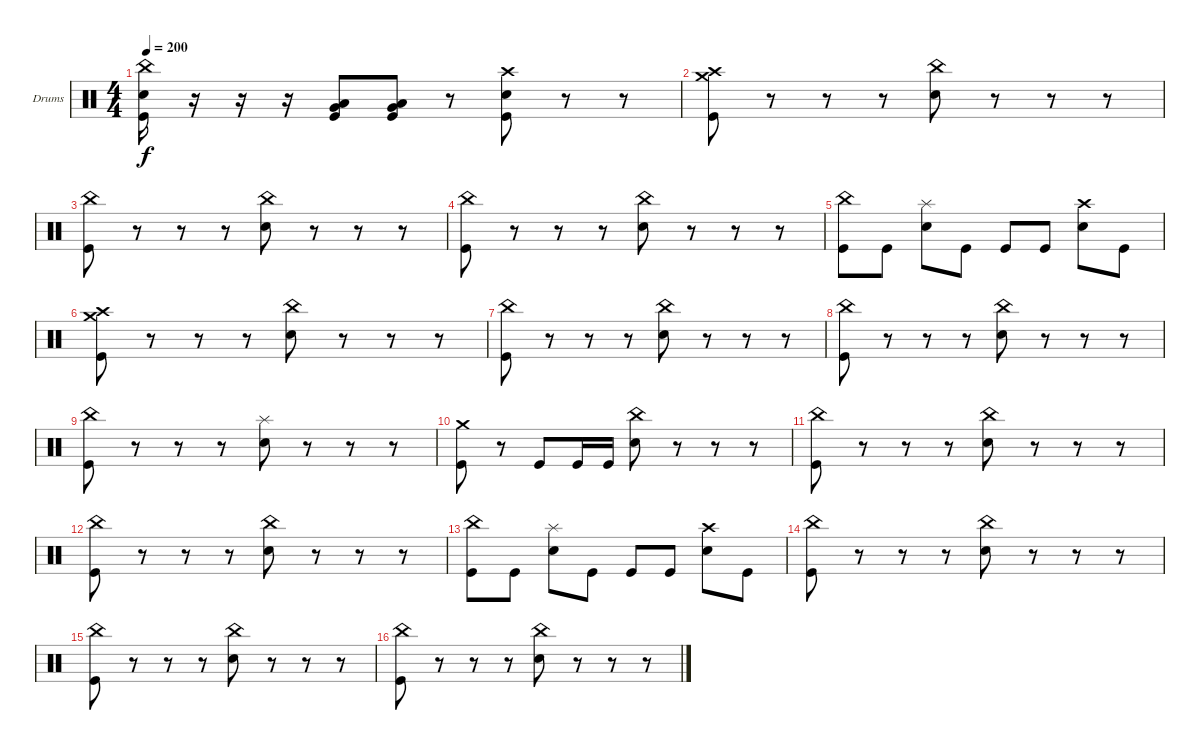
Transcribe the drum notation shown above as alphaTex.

\defaultSystemsLayout 4
\bracketExtendMode groupsimilarinstruments
\firstSystemTrackNameOrientation horizontal
\otherSystemsTrackNameOrientation horizontal
\track ("Drumkit" "Drums") {instrument percussion}
\staff {score}
\articulation defaults
\ts (4 4)
\tempo 200
\clef neutral
\ks c
("Kick (hit)" "Snare (hit) 2" "China (hit)").16{dy f} r.16 r.16 r.16 ("Kick (hit)" "Very Low Tom (hit)" "Low Tom (hit)").8 ("Kick (hit)" "Very Low Tom (hit)" "Low Tom (hit)").8 r.8 ("Kick (hit)" "Snare (hit) 2" "Crash high (hit)").8 r.8 r.8 |
("Kick (hit)" "Crash medium (hit)" "Crash high (hit)").8 r.8 r.8 r.8 ("Snare (hit) 2" "China (hit)").8 r.8 r.8 r.8 |
("Kick (hit)" "China (hit)").8 r.8 r.8 r.8 ("Snare (hit) 2" "China (hit)").8 r.8 r.8 r.8 |
("Kick (hit)" "China (hit)").8 r.8 r.8 r.8 ("Snare (hit) 2" "China (hit)").8 r.8 r.8 r.8 |
("Kick (hit)" "China (hit)").8 "Kick (hit)".8 ("Snare (hit) 2" "Splash (hit)").8 "Kick (hit)".8 "Kick (hit)".8 "Kick (hit)".8 ("Snare (hit) 2" "Crash high (hit)").8 "Kick (hit)".8 |
("Kick (hit)" "Crash high (hit)" "Crash medium (hit)").8 r.8 r.8 r.8 ("Snare (hit) 2" "China (hit)").8 r.8 r.8 r.8 |
("Kick (hit)" "China (hit)").8 r.8 r.8 r.8 ("Snare (hit) 2" "China (hit)").8 r.8 r.8 r.8 |
("Kick (hit)" "China (hit)").8 r.8 r.8 r.8 ("Snare (hit) 2" "China (hit)").8 r.8 r.8 r.8 |
("Kick (hit)" "China (hit)").8 r.8 r.8 r.8 ("Snare (hit) 2" "Splash (hit)").8 r.8 r.8 r.8 |
("Kick (hit)" "Crash medium (hit)").8 r.8 "Kick (hit)".8 "Kick (hit)".16 "Kick (hit)".16 ("Snare (hit) 2" "China (hit)").8 r.8 r.8 r.8 |
("Kick (hit)" "China (hit)").8 r.8 r.8 r.8 ("Snare (hit) 2" "China (hit)").8 r.8 r.8 r.8 |
("Kick (hit)" "China (hit)").8 r.8 r.8 r.8 ("Snare (hit) 2" "China (hit)").8 r.8 r.8 r.8 |
("Kick (hit)" "China (hit)").8 "Kick (hit)".8 ("Snare (hit) 2" "Splash (hit)").8 "Kick (hit)".8 "Kick (hit)".8 "Kick (hit)".8 ("Snare (hit) 2" "Crash high (hit)").8 "Kick (hit)".8 |
("Kick (hit)" "China (hit)").8 r.8 r.8 r.8 ("Snare (hit) 2" "China (hit)").8 r.8 r.8 r.8 |
("Kick (hit)" "China (hit)").8 r.8 r.8 r.8 ("Snare (hit) 2" "China (hit)").8 r.8 r.8 r.8 |
("Kick (hit)" "China (hit)").8 r.8 r.8 r.8 ("Snare (hit) 2" "China (hit)").8 r.8 r.8 r.8
